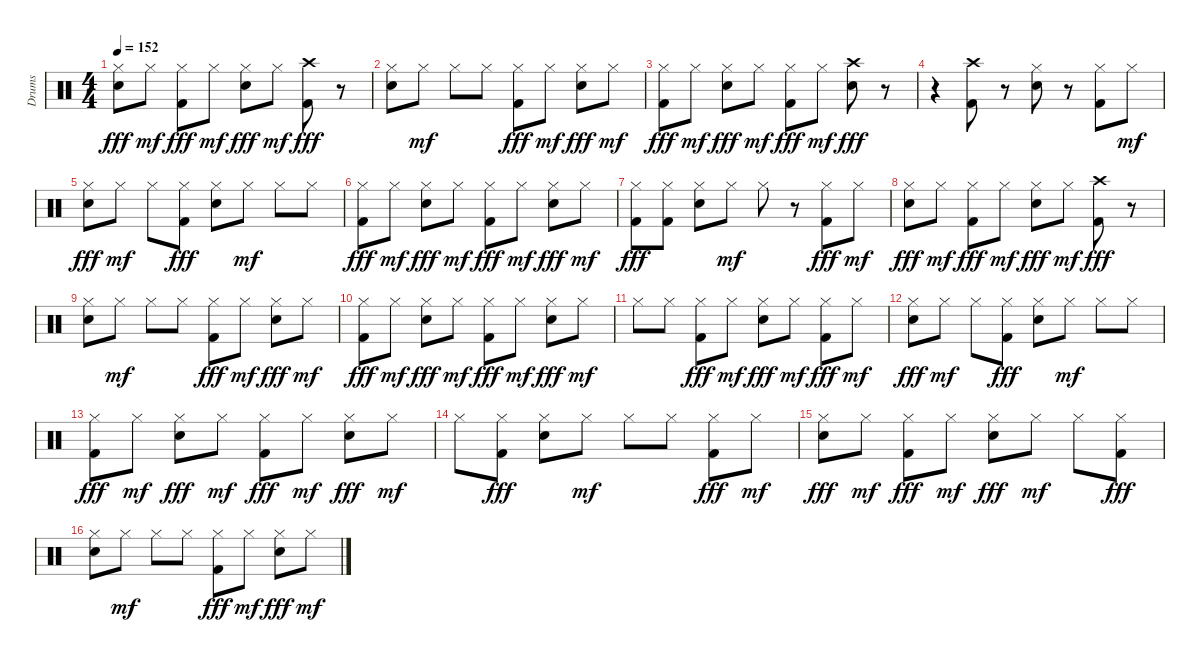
\track ("Drums" "Drums") {instrument percussion}
\staff {score}
\articulation defaults
\ts (4 4)
\tempo 152
\clef neutral
\ks c
("Hi-Hat (closed)" "Electric Snare (hit)").8{dy fff} "Hi-Hat (closed)".8{dy mf} ("Hi-Hat (closed)" "Kick (hit) 2").8{dy fff} "Hi-Hat (closed)".8{dy mf} ("Hi-Hat (closed)" "Electric Snare (hit)").8{dy fff} "Hi-Hat (closed)".8{dy mf} ("Crash high (hit)" "Kick (hit) 2").8{dy fff} r.8 |
("Hi-Hat (closed)" "Electric Snare (hit)").8 "Hi-Hat (closed)".8{dy mf} "Hi-Hat (closed)".8 "Hi-Hat (closed)".8 ("Hi-Hat (closed)" "Kick (hit) 2").8{dy fff} "Hi-Hat (closed)".8{dy mf} ("Hi-Hat (closed)" "Electric Snare (hit)").8{dy fff} "Hi-Hat (closed)".8{dy mf} |
("Hi-Hat (closed)" "Kick (hit) 2").8{dy fff} "Hi-Hat (closed)".8{dy mf} ("Hi-Hat (closed)" "Electric Snare (hit)").8{dy fff} "Hi-Hat (closed)".8{dy mf} ("Hi-Hat (closed)" "Kick (hit) 2").8{dy fff} "Hi-Hat (closed)".8{dy mf} ("Crash high (hit)" "Electric Snare (hit)").8{dy fff} r.8 |
r.4 ("Crash high (hit)" "Kick (hit) 2").8 r.8 ("Hi-Hat (closed)" "Electric Snare (hit)").8 r.8 ("Hi-Hat (closed)" "Kick (hit) 2").8 "Hi-Hat (closed)".8{dy mf} |
("Hi-Hat (closed)" "Electric Snare (hit)").8{dy fff} "Hi-Hat (closed)".8{dy mf} "Hi-Hat (closed)".8 ("Hi-Hat (closed)" "Kick (hit) 2").8{dy fff} ("Hi-Hat (closed)" "Electric Snare (hit)").8 "Hi-Hat (closed)".8{dy mf} "Hi-Hat (closed)".8 "Hi-Hat (closed)".8 |
("Hi-Hat (closed)" "Kick (hit) 2").8{dy fff} "Hi-Hat (closed)".8{dy mf} ("Hi-Hat (closed)" "Electric Snare (hit)").8{dy fff} "Hi-Hat (closed)".8{dy mf} ("Hi-Hat (closed)" "Kick (hit) 2").8{dy fff} "Hi-Hat (closed)".8{dy mf} ("Hi-Hat (closed)" "Electric Snare (hit)").8{dy fff} "Hi-Hat (closed)".8{dy mf} |
("Hi-Hat (closed)" "Kick (hit) 2").8{dy fff} ("Hi-Hat (closed)" "Kick (hit) 2").8 ("Hi-Hat (closed)" "Electric Snare (hit)").8 "Hi-Hat (closed)".8{dy mf} "Hi-Hat (closed)".8 r.8 ("Hi-Hat (closed)" "Kick (hit) 2").8{dy fff} "Hi-Hat (closed)".8{dy mf} |
("Hi-Hat (closed)" "Electric Snare (hit)").8{dy fff} "Hi-Hat (closed)".8{dy mf} ("Hi-Hat (closed)" "Kick (hit) 2").8{dy fff} "Hi-Hat (closed)".8{dy mf} ("Hi-Hat (closed)" "Electric Snare (hit)").8{dy fff} "Hi-Hat (closed)".8{dy mf} ("Crash high (hit)" "Kick (hit) 2").8{dy fff} r.8 |
("Hi-Hat (closed)" "Electric Snare (hit)").8 "Hi-Hat (closed)".8{dy mf} "Hi-Hat (closed)".8 "Hi-Hat (closed)".8 ("Hi-Hat (closed)" "Kick (hit) 2").8{dy fff} "Hi-Hat (closed)".8{dy mf} ("Hi-Hat (closed)" "Electric Snare (hit)").8{dy fff} "Hi-Hat (closed)".8{dy mf} |
("Hi-Hat (closed)" "Kick (hit) 2").8{dy fff} "Hi-Hat (closed)".8{dy mf} ("Hi-Hat (closed)" "Electric Snare (hit)").8{dy fff} "Hi-Hat (closed)".8{dy mf} ("Hi-Hat (closed)" "Kick (hit) 2").8{dy fff} "Hi-Hat (closed)".8{dy mf} ("Hi-Hat (closed)" "Electric Snare (hit)").8{dy fff} "Hi-Hat (closed)".8{dy mf} |
"Hi-Hat (closed)".8 "Hi-Hat (closed)".8 ("Hi-Hat (closed)" "Kick (hit) 2").8{dy fff} "Hi-Hat (closed)".8{dy mf} ("Hi-Hat (closed)" "Electric Snare (hit)").8{dy fff} "Hi-Hat (closed)".8{dy mf} ("Hi-Hat (closed)" "Kick (hit) 2").8{dy fff} "Hi-Hat (closed)".8{dy mf} |
("Hi-Hat (closed)" "Electric Snare (hit)").8{dy fff} "Hi-Hat (closed)".8{dy mf} "Hi-Hat (closed)".8 ("Hi-Hat (closed)" "Kick (hit) 2").8{dy fff} ("Hi-Hat (closed)" "Electric Snare (hit)").8 "Hi-Hat (closed)".8{dy mf} "Hi-Hat (closed)".8 "Hi-Hat (closed)".8 |
("Hi-Hat (closed)" "Kick (hit) 2").8{dy fff} "Hi-Hat (closed)".8{dy mf} ("Hi-Hat (closed)" "Electric Snare (hit)").8{dy fff} "Hi-Hat (closed)".8{dy mf} ("Hi-Hat (closed)" "Kick (hit) 2").8{dy fff} "Hi-Hat (closed)".8{dy mf} ("Hi-Hat (closed)" "Electric Snare (hit)").8{dy fff} "Hi-Hat (closed)".8{dy mf} |
"Hi-Hat (closed)".8 ("Hi-Hat (closed)" "Kick (hit) 2").8{dy fff} ("Hi-Hat (closed)" "Electric Snare (hit)").8 "Hi-Hat (closed)".8{dy mf} "Hi-Hat (closed)".8 "Hi-Hat (closed)".8 ("Hi-Hat (closed)" "Kick (hit) 2").8{dy fff} "Hi-Hat (closed)".8{dy mf} |
("Hi-Hat (closed)" "Electric Snare (hit)").8{dy fff} "Hi-Hat (closed)".8{dy mf} ("Hi-Hat (closed)" "Kick (hit) 2").8{dy fff} "Hi-Hat (closed)".8{dy mf} ("Hi-Hat (closed)" "Electric Snare (hit)").8{dy fff} "Hi-Hat (closed)".8{dy mf} "Hi-Hat (closed)".8 ("Hi-Hat (closed)" "Kick (hit) 2").8{dy fff} |
("Hi-Hat (closed)" "Electric Snare (hit)").8 "Hi-Hat (closed)".8{dy mf} "Hi-Hat (closed)".8 "Hi-Hat (closed)".8 ("Hi-Hat (closed)" "Kick (hit) 2").8{dy fff} "Hi-Hat (closed)".8{dy mf} ("Hi-Hat (closed)" "Electric Snare (hit)").8{dy fff} "Hi-Hat (closed)".8{dy mf}
